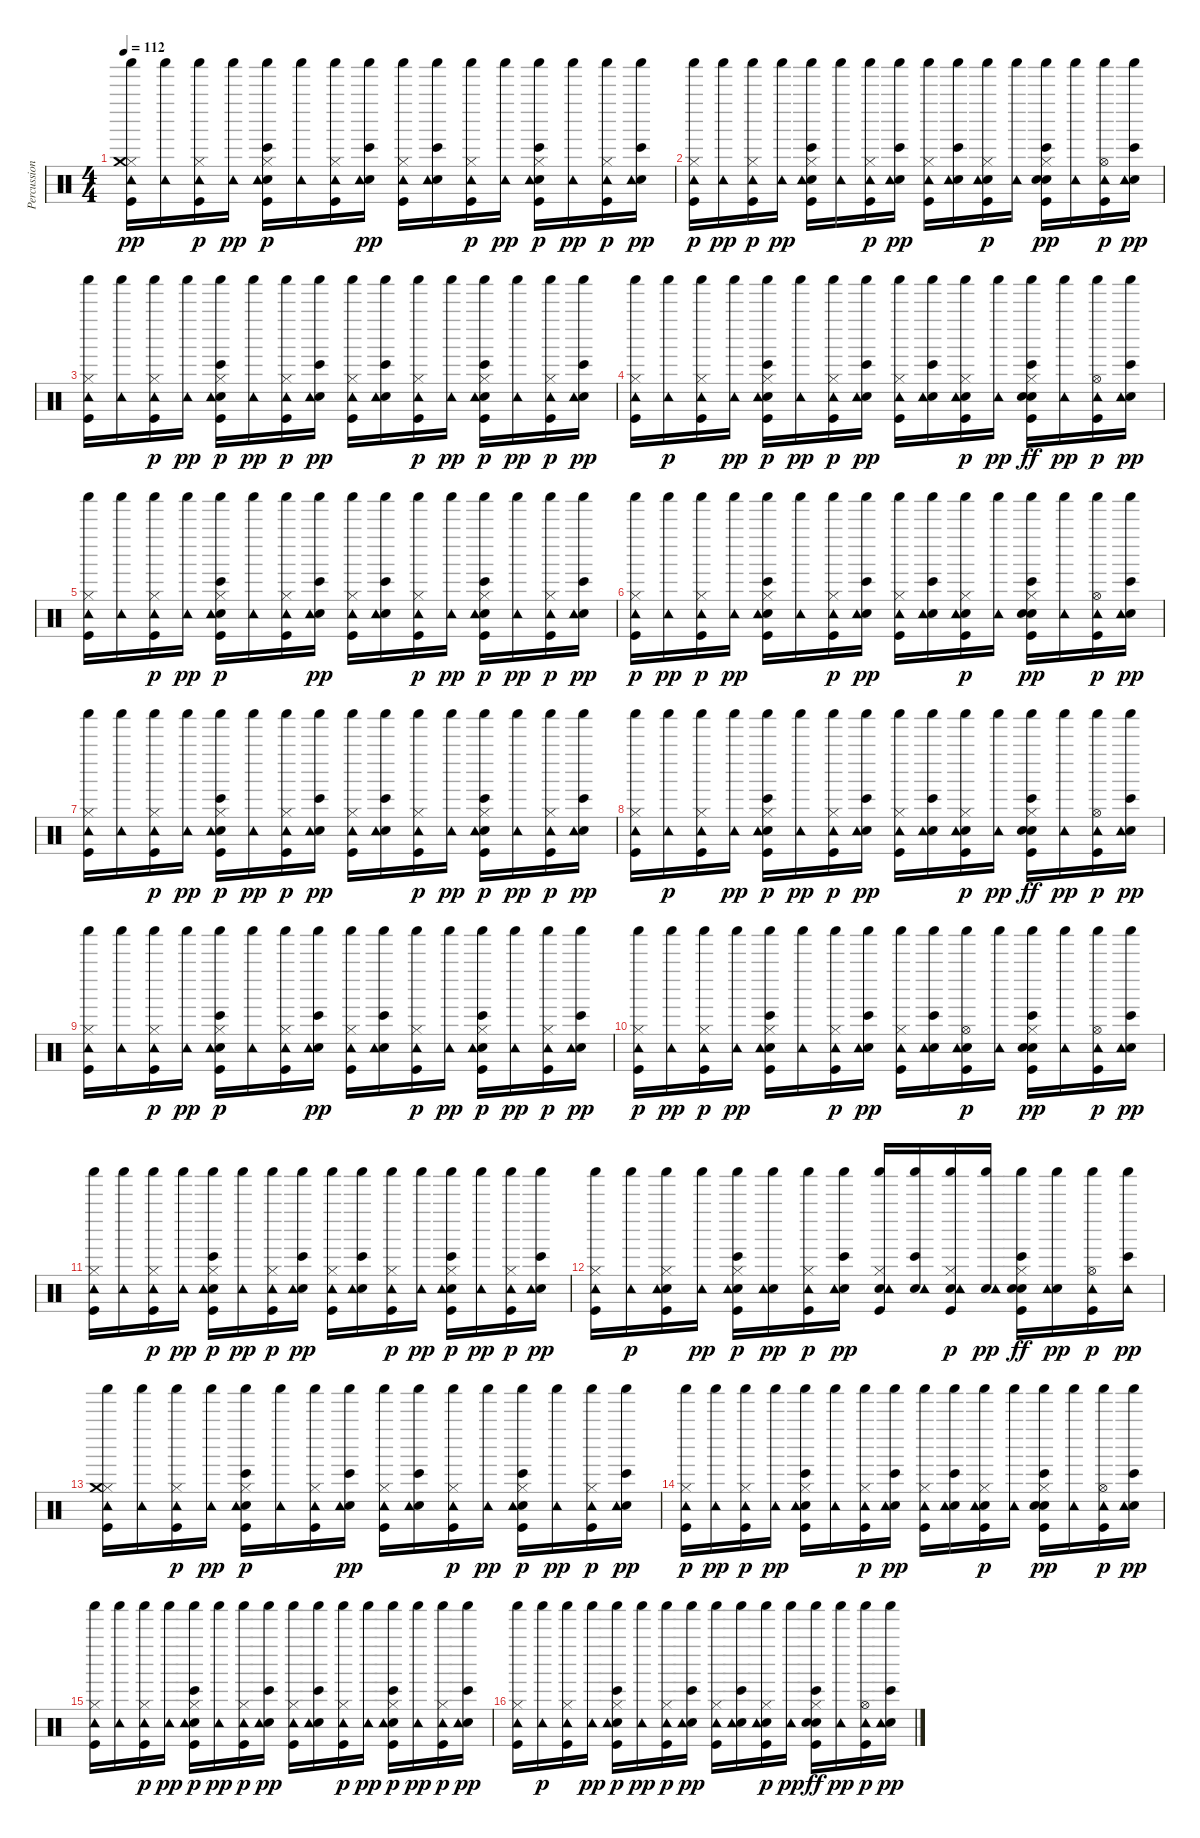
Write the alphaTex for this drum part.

\track ("Percussioni" "Percussion") {instrument percussion}
\staff {score}
\articulation defaults
\ts (4 4)
\tempo 112
\clef neutral
\ks c
("Kick (hit)" "Hi-Hat (closed)" "Tambourine (hit)" "Crash medium (hit)" "Shaker (hit)").16{dy pp} ("Tambourine (hit)" "Shaker (hit)").16 ("Kick (hit)" "Hi-Hat (closed)" "Shaker (hit)" "Tambourine (hit)").16{dy p} ("Tambourine (hit)" "Shaker (hit)").16{dy pp} ("Bongo High (hit)" "Kick (hit)" "Electric Snare (hit)" "Hi-Hat (closed)" "Shaker (hit)" "Tambourine (hit)").16{dy p} ("Shaker (hit)" "Tambourine (hit)").16 ("Kick (hit)" "Hi-Hat (closed)" "Shaker (hit)" "Tambourine (hit)").16 ("Bongo High (hit)" "Electric Snare (hit)" "Tambourine (hit)" "Shaker (hit)").16{dy pp} ("Kick (hit)" "Hi-Hat (closed)" "Tambourine (hit)" "Shaker (hit)").16 ("Bongo High (hit)" "Electric Snare (hit)" "Tambourine (hit)" "Shaker (hit)").16 ("Kick (hit)" "Hi-Hat (closed)" "Shaker (hit)" "Tambourine (hit)").16{dy p} ("Tambourine (hit)" "Shaker (hit)").16{dy pp} ("Bongo High (hit)" "Kick (hit)" "Electric Snare (hit)" "Hi-Hat (closed)" "Shaker (hit)" "Tambourine (hit)").16{dy p} ("Tambourine (hit)" "Shaker (hit)").16{dy pp} ("Kick (hit)" "Hi-Hat (closed)" "Shaker (hit)" "Tambourine (hit)").16{dy p} ("Bongo High (hit)" "Electric Snare (hit)" "Tambourine (hit)" "Shaker (hit)").16{dy pp} |
("Shaker (hit)" "Kick (hit)" "Hi-Hat (closed)" "Tambourine (hit)").16{dy p} ("Tambourine (hit)" "Shaker (hit)").16{dy pp} ("Kick (hit)" "Hi-Hat (closed)" "Shaker (hit)" "Tambourine (hit)").16{dy p} ("Tambourine (hit)" "Shaker (hit)").16{dy pp} ("Bongo High (hit)" "Kick (hit)" "Electric Snare (hit)" "Hi-Hat (closed)" "Tambourine (hit)" "Shaker (hit)").16 ("Tambourine (hit)" "Shaker (hit)").16 ("Kick (hit)" "Hi-Hat (closed)" "Shaker (hit)" "Tambourine (hit)").16{dy p} ("Bongo High (hit)" "Electric Snare (hit)" "Tambourine (hit)" "Shaker (hit)").16{dy pp} ("Kick (hit)" "Hi-Hat (closed)" "Tambourine (hit)" "Shaker (hit)").16 ("Bongo High (hit)" "Electric Snare (hit)" "Tambourine (hit)" "Shaker (hit)").16 ("Kick (hit)" "Hand Clap (hit)" "Hi-Hat (closed)" "Shaker (hit)" "Tambourine (hit)").16{dy p} ("Shaker (hit)" "Tambourine (hit)").16 ("Bongo High (hit)" "Kick (hit)" "Hand Clap (hit)" "Electric Snare (hit)" "Hi-Hat (closed)" "Shaker (hit)").16{dy pp} ("Tambourine (hit)" "Shaker (hit)").16 ("Kick (hit)" "Hi-Hat (open)" "Shaker (hit)" "Tambourine (hit)").16{dy p} ("Bongo High (hit)" "Electric Snare (hit)" "Tambourine (hit)" "Shaker (hit)").16{dy pp} |
("Kick (hit)" "Hi-Hat (closed)" "Tambourine (hit)" "Shaker (hit)").16 ("Tambourine (hit)" "Shaker (hit)").16 ("Kick (hit)" "Hi-Hat (closed)" "Shaker (hit)" "Tambourine (hit)").16{dy p} ("Tambourine (hit)" "Shaker (hit)").16{dy pp} ("Bongo High (hit)" "Kick (hit)" "Electric Snare (hit)" "Hi-Hat (closed)" "Shaker (hit)" "Tambourine (hit)").16{dy p} ("Tambourine (hit)" "Shaker (hit)").16{dy pp} ("Shaker (hit)" "Kick (hit)" "Hi-Hat (closed)" "Tambourine (hit)").16{dy p} ("Bongo High (hit)" "Electric Snare (hit)" "Tambourine (hit)" "Shaker (hit)").16{dy pp} ("Kick (hit)" "Hi-Hat (closed)" "Tambourine (hit)" "Shaker (hit)").16 ("Bongo High (hit)" "Electric Snare (hit)" "Tambourine (hit)" "Shaker (hit)").16 ("Kick (hit)" "Hi-Hat (closed)" "Shaker (hit)" "Tambourine (hit)").16{dy p} ("Tambourine (hit)" "Shaker (hit)").16{dy pp} ("Bongo High (hit)" "Kick (hit)" "Electric Snare (hit)" "Hi-Hat (closed)" "Shaker (hit)" "Tambourine (hit)").16{dy p} ("Tambourine (hit)" "Shaker (hit)").16{dy pp} ("Kick (hit)" "Hi-Hat (closed)" "Shaker (hit)" "Tambourine (hit)").16{dy p} ("Bongo High (hit)" "Electric Snare (hit)" "Tambourine (hit)" "Shaker (hit)").16{dy pp} |
("Kick (hit)" "Hi-Hat (closed)" "Tambourine (hit)" "Shaker (hit)").16 ("Shaker (hit)" "Tambourine (hit)").16{dy p} ("Kick (hit)" "Hi-Hat (closed)" "Shaker (hit)" "Tambourine (hit)").16 ("Tambourine (hit)" "Shaker (hit)").16{dy pp} ("Bongo High (hit)" "Kick (hit)" "Electric Snare (hit)" "Hi-Hat (closed)" "Shaker (hit)" "Tambourine (hit)").16{dy p} ("Tambourine (hit)" "Shaker (hit)").16{dy pp} ("Kick (hit)" "Hi-Hat (closed)" "Shaker (hit)" "Tambourine (hit)").16{dy p} ("Bongo High (hit)" "Electric Snare (hit)" "Tambourine (hit)" "Shaker (hit)").16{dy pp} ("Kick (hit)" "Hi-Hat (closed)" "Tambourine (hit)" "Shaker (hit)").16 ("Bongo High (hit)" "Electric Snare (hit)" "Tambourine (hit)" "Shaker (hit)").16 ("Kick (hit)" "Hand Clap (hit)" "Hi-Hat (closed)" "Shaker (hit)" "Tambourine (hit)").16{dy p} ("Tambourine (hit)" "Shaker (hit)").16{dy pp} ("Shaker (hit)" "Bongo High (hit)" "Kick (hit)" "Hand Clap (hit)" "Electric Snare (hit)" "Hi-Hat (closed)").16{dy ff} ("Tambourine (hit)" "Shaker (hit)").16{dy pp} ("Kick (hit)" "Hi-Hat (open)" "Shaker (hit)" "Tambourine (hit)").16{dy p} ("Bongo High (hit)" "Electric Snare (hit)" "Tambourine (hit)" "Shaker (hit)").16{dy pp} |
("Kick (hit)" "Hi-Hat (closed)" "Tambourine (hit)" "Shaker (hit)").16 ("Tambourine (hit)" "Shaker (hit)").16 ("Kick (hit)" "Hi-Hat (closed)" "Shaker (hit)" "Tambourine (hit)").16{dy p} ("Tambourine (hit)" "Shaker (hit)").16{dy pp} ("Bongo High (hit)" "Kick (hit)" "Electric Snare (hit)" "Hi-Hat (closed)" "Shaker (hit)" "Tambourine (hit)").16{dy p} ("Shaker (hit)" "Tambourine (hit)").16 ("Kick (hit)" "Hi-Hat (closed)" "Shaker (hit)" "Tambourine (hit)").16 ("Bongo High (hit)" "Electric Snare (hit)" "Tambourine (hit)" "Shaker (hit)").16{dy pp} ("Kick (hit)" "Hi-Hat (closed)" "Tambourine (hit)" "Shaker (hit)").16 ("Bongo High (hit)" "Electric Snare (hit)" "Tambourine (hit)" "Shaker (hit)").16 ("Kick (hit)" "Hi-Hat (closed)" "Shaker (hit)" "Tambourine (hit)").16{dy p} ("Tambourine (hit)" "Shaker (hit)").16{dy pp} ("Bongo High (hit)" "Kick (hit)" "Electric Snare (hit)" "Hi-Hat (closed)" "Shaker (hit)" "Tambourine (hit)").16{dy p} ("Tambourine (hit)" "Shaker (hit)").16{dy pp} ("Kick (hit)" "Hi-Hat (closed)" "Shaker (hit)" "Tambourine (hit)").16{dy p} ("Bongo High (hit)" "Electric Snare (hit)" "Tambourine (hit)" "Shaker (hit)").16{dy pp} |
("Shaker (hit)" "Kick (hit)" "Hi-Hat (closed)" "Tambourine (hit)").16{dy p} ("Tambourine (hit)" "Shaker (hit)").16{dy pp} ("Kick (hit)" "Hi-Hat (closed)" "Shaker (hit)" "Tambourine (hit)").16{dy p} ("Tambourine (hit)" "Shaker (hit)").16{dy pp} ("Bongo High (hit)" "Kick (hit)" "Electric Snare (hit)" "Hi-Hat (closed)" "Tambourine (hit)" "Shaker (hit)").16 ("Tambourine (hit)" "Shaker (hit)").16 ("Kick (hit)" "Hi-Hat (closed)" "Shaker (hit)" "Tambourine (hit)").16{dy p} ("Bongo High (hit)" "Electric Snare (hit)" "Tambourine (hit)" "Shaker (hit)").16{dy pp} ("Kick (hit)" "Hi-Hat (closed)" "Tambourine (hit)" "Shaker (hit)").16 ("Bongo High (hit)" "Electric Snare (hit)" "Tambourine (hit)" "Shaker (hit)").16 ("Kick (hit)" "Hand Clap (hit)" "Hi-Hat (closed)" "Shaker (hit)" "Tambourine (hit)").16{dy p} ("Shaker (hit)" "Tambourine (hit)").16 ("Bongo High (hit)" "Kick (hit)" "Hand Clap (hit)" "Electric Snare (hit)" "Hi-Hat (closed)" "Shaker (hit)").16{dy pp} ("Tambourine (hit)" "Shaker (hit)").16 ("Kick (hit)" "Hi-Hat (open)" "Shaker (hit)" "Tambourine (hit)").16{dy p} ("Bongo High (hit)" "Electric Snare (hit)" "Tambourine (hit)" "Shaker (hit)").16{dy pp} |
("Kick (hit)" "Hi-Hat (closed)" "Tambourine (hit)" "Shaker (hit)").16 ("Tambourine (hit)" "Shaker (hit)").16 ("Kick (hit)" "Hi-Hat (closed)" "Shaker (hit)" "Tambourine (hit)").16{dy p} ("Tambourine (hit)" "Shaker (hit)").16{dy pp} ("Bongo High (hit)" "Kick (hit)" "Electric Snare (hit)" "Hi-Hat (closed)" "Shaker (hit)" "Tambourine (hit)").16{dy p} ("Tambourine (hit)" "Shaker (hit)").16{dy pp} ("Shaker (hit)" "Kick (hit)" "Hi-Hat (closed)" "Tambourine (hit)").16{dy p} ("Bongo High (hit)" "Electric Snare (hit)" "Tambourine (hit)" "Shaker (hit)").16{dy pp} ("Kick (hit)" "Hi-Hat (closed)" "Tambourine (hit)" "Shaker (hit)").16 ("Bongo High (hit)" "Electric Snare (hit)" "Tambourine (hit)" "Shaker (hit)").16 ("Kick (hit)" "Hi-Hat (closed)" "Shaker (hit)" "Tambourine (hit)").16{dy p} ("Tambourine (hit)" "Shaker (hit)").16{dy pp} ("Bongo High (hit)" "Kick (hit)" "Electric Snare (hit)" "Hi-Hat (closed)" "Shaker (hit)" "Tambourine (hit)").16{dy p} ("Tambourine (hit)" "Shaker (hit)").16{dy pp} ("Kick (hit)" "Hi-Hat (closed)" "Shaker (hit)" "Tambourine (hit)").16{dy p} ("Bongo High (hit)" "Electric Snare (hit)" "Tambourine (hit)" "Shaker (hit)").16{dy pp} |
("Kick (hit)" "Hi-Hat (closed)" "Tambourine (hit)" "Shaker (hit)").16 ("Shaker (hit)" "Tambourine (hit)").16{dy p} ("Kick (hit)" "Hi-Hat (closed)" "Shaker (hit)" "Tambourine (hit)").16 ("Tambourine (hit)" "Shaker (hit)").16{dy pp} ("Bongo High (hit)" "Kick (hit)" "Electric Snare (hit)" "Hi-Hat (closed)" "Shaker (hit)" "Tambourine (hit)").16{dy p} ("Tambourine (hit)" "Shaker (hit)").16{dy pp} ("Kick (hit)" "Hi-Hat (closed)" "Shaker (hit)" "Tambourine (hit)").16{dy p} ("Bongo High (hit)" "Electric Snare (hit)" "Tambourine (hit)" "Shaker (hit)").16{dy pp} ("Kick (hit)" "Hi-Hat (closed)" "Tambourine (hit)" "Shaker (hit)").16 ("Bongo High (hit)" "Electric Snare (hit)" "Tambourine (hit)" "Shaker (hit)").16 ("Kick (hit)" "Hand Clap (hit)" "Hi-Hat (closed)" "Shaker (hit)" "Tambourine (hit)").16{dy p} ("Tambourine (hit)" "Shaker (hit)").16{dy pp} ("Shaker (hit)" "Bongo High (hit)" "Kick (hit)" "Hand Clap (hit)" "Electric Snare (hit)" "Hi-Hat (closed)").16{dy ff} ("Tambourine (hit)" "Shaker (hit)").16{dy pp} ("Kick (hit)" "Hi-Hat (open)" "Shaker (hit)" "Tambourine (hit)").16{dy p} ("Bongo High (hit)" "Electric Snare (hit)" "Tambourine (hit)" "Shaker (hit)").16{dy pp} |
("Kick (hit)" "Hi-Hat (closed)" "Tambourine (hit)" "Shaker (hit)").16 ("Tambourine (hit)" "Shaker (hit)").16 ("Kick (hit)" "Hi-Hat (closed)" "Shaker (hit)" "Tambourine (hit)").16{dy p} ("Tambourine (hit)" "Shaker (hit)").16{dy pp} ("Bongo High (hit)" "Kick (hit)" "Electric Snare (hit)" "Hi-Hat (closed)" "Shaker (hit)" "Tambourine (hit)").16{dy p} ("Shaker (hit)" "Tambourine (hit)").16 ("Kick (hit)" "Hi-Hat (closed)" "Shaker (hit)" "Tambourine (hit)").16 ("Bongo High (hit)" "Electric Snare (hit)" "Tambourine (hit)" "Shaker (hit)").16{dy pp} ("Kick (hit)" "Hi-Hat (closed)" "Tambourine (hit)" "Shaker (hit)").16 ("Bongo High (hit)" "Electric Snare (hit)" "Tambourine (hit)" "Shaker (hit)").16 ("Kick (hit)" "Hi-Hat (closed)" "Shaker (hit)" "Tambourine (hit)").16{dy p} ("Tambourine (hit)" "Shaker (hit)").16{dy pp} ("Bongo High (hit)" "Kick (hit)" "Electric Snare (hit)" "Hi-Hat (closed)" "Shaker (hit)" "Tambourine (hit)").16{dy p} ("Tambourine (hit)" "Shaker (hit)").16{dy pp} ("Kick (hit)" "Hi-Hat (closed)" "Shaker (hit)" "Tambourine (hit)").16{dy p} ("Bongo High (hit)" "Electric Snare (hit)" "Tambourine (hit)" "Shaker (hit)").16{dy pp} |
("Shaker (hit)" "Kick (hit)" "Hi-Hat (closed)" "Tambourine (hit)").16{dy p} ("Tambourine (hit)" "Shaker (hit)").16{dy pp} ("Kick (hit)" "Hi-Hat (closed)" "Shaker (hit)" "Tambourine (hit)").16{dy p} ("Tambourine (hit)" "Shaker (hit)").16{dy pp} ("Bongo High (hit)" "Kick (hit)" "Electric Snare (hit)" "Hi-Hat (closed)" "Tambourine (hit)" "Shaker (hit)").16 ("Tambourine (hit)" "Shaker (hit)").16 ("Kick (hit)" "Hi-Hat (closed)" "Shaker (hit)" "Tambourine (hit)").16{dy p} ("Bongo High (hit)" "Electric Snare (hit)" "Tambourine (hit)" "Shaker (hit)").16{dy pp} ("Kick (hit)" "Hi-Hat (closed)" "Tambourine (hit)" "Shaker (hit)").16 ("Bongo High (hit)" "Electric Snare (hit)" "Tambourine (hit)" "Shaker (hit)").16 ("Kick (hit)" "Hand Clap (hit)" "Hi-Hat (open)" "Shaker (hit)" "Tambourine (hit)").16{dy p} ("Shaker (hit)" "Tambourine (hit)").16 ("Bongo High (hit)" "Kick (hit)" "Hand Clap (hit)" "Electric Snare (hit)" "Hi-Hat (closed)" "Shaker (hit)").16{dy pp} ("Tambourine (hit)" "Shaker (hit)").16 ("Kick (hit)" "Hi-Hat (open)" "Shaker (hit)" "Tambourine (hit)").16{dy p} ("Bongo High (hit)" "Electric Snare (hit)" "Tambourine (hit)" "Shaker (hit)").16{dy pp} |
("Kick (hit)" "Hi-Hat (closed)" "Tambourine (hit)" "Shaker (hit)").16 ("Tambourine (hit)" "Shaker (hit)").16 ("Kick (hit)" "Hi-Hat (closed)" "Shaker (hit)" "Tambourine (hit)").16{dy p} ("Tambourine (hit)" "Shaker (hit)").16{dy pp} ("Bongo High (hit)" "Kick (hit)" "Electric Snare (hit)" "Hi-Hat (closed)" "Shaker (hit)" "Tambourine (hit)").16{dy p} ("Tambourine (hit)" "Shaker (hit)").16{dy pp} ("Shaker (hit)" "Kick (hit)" "Hi-Hat (closed)" "Tambourine (hit)").16{dy p} ("Bongo High (hit)" "Electric Snare (hit)" "Tambourine (hit)" "Shaker (hit)").16{dy pp} ("Kick (hit)" "Hi-Hat (closed)" "Tambourine (hit)" "Shaker (hit)").16 ("Bongo High (hit)" "Electric Snare (hit)" "Tambourine (hit)" "Shaker (hit)").16 ("Kick (hit)" "Hi-Hat (closed)" "Shaker (hit)" "Tambourine (hit)").16{dy p} ("Tambourine (hit)" "Shaker (hit)").16{dy pp} ("Bongo High (hit)" "Kick (hit)" "Electric Snare (hit)" "Hi-Hat (closed)" "Shaker (hit)" "Tambourine (hit)").16{dy p} ("Tambourine (hit)" "Shaker (hit)").16{dy pp} ("Kick (hit)" "Hi-Hat (closed)" "Shaker (hit)" "Tambourine (hit)").16{dy p} ("Bongo High (hit)" "Electric Snare (hit)" "Tambourine (hit)" "Shaker (hit)").16{dy pp} |
("Kick (hit)" "Hi-Hat (closed)" "Tambourine (hit)" "Shaker (hit)").16 ("Shaker (hit)" "Tambourine (hit)").16{dy p} ("Kick (hit)" "Electric Snare (hit)" "Hi-Hat (closed)" "Shaker (hit)" "Tambourine (hit)").16 ("Tambourine (hit)" "Shaker (hit)").16{dy pp} ("Bongo High (hit)" "Kick (hit)" "Electric Snare (hit)" "Hi-Hat (closed)" "Shaker (hit)" "Tambourine (hit)").16{dy p} ("Electric Snare (hit)" "Tambourine (hit)" "Shaker (hit)").16{dy pp} ("Kick (hit)" "Hi-Hat (closed)" "Shaker (hit)" "Tambourine (hit)").16{dy p} ("Bongo High (hit)" "Electric Snare (hit)" "Tambourine (hit)" "Shaker (hit)").16{dy pp} ("Kick (hit)" "Electric Snare (hit)" "Hi-Hat (closed)" "Tambourine (hit)" "Shaker (hit)").16 ("Bongo High (hit)" "Electric Snare (hit)" "Tambourine (hit)" "Shaker (hit)").16 ("Kick (hit)" "Hand Clap (hit)" "Hi-Hat (closed)" "Shaker (hit)" "Tambourine (hit)").16{dy p} ("Electric Snare (hit)" "Tambourine (hit)" "Shaker (hit)").16{dy pp} ("Shaker (hit)" "Bongo High (hit)" "Kick (hit)" "Hand Clap (hit)" "Electric Snare (hit)" "Hi-Hat (closed)").16{dy ff} ("Electric Snare (hit)" "Tambourine (hit)" "Shaker (hit)").16{dy pp} ("Kick (hit)" "Hi-Hat (open)" "Shaker (hit)" "Tambourine (hit)").16{dy p} ("Bongo High (hit)" "Tambourine (hit)" "Shaker (hit)").16{dy pp} |
("Kick (hit)" "Hi-Hat (closed)" "Tambourine (hit)" "Crash medium (hit)" "Shaker (hit)").16 ("Tambourine (hit)" "Shaker (hit)").16 ("Kick (hit)" "Hi-Hat (closed)" "Shaker (hit)" "Tambourine (hit)").16{dy p} ("Tambourine (hit)" "Shaker (hit)").16{dy pp} ("Bongo High (hit)" "Kick (hit)" "Electric Snare (hit)" "Hi-Hat (closed)" "Shaker (hit)" "Tambourine (hit)").16{dy p} ("Shaker (hit)" "Tambourine (hit)").16 ("Kick (hit)" "Hi-Hat (closed)" "Shaker (hit)" "Tambourine (hit)").16 ("Bongo High (hit)" "Electric Snare (hit)" "Tambourine (hit)" "Shaker (hit)").16{dy pp} ("Kick (hit)" "Hi-Hat (closed)" "Tambourine (hit)" "Shaker (hit)").16 ("Bongo High (hit)" "Electric Snare (hit)" "Tambourine (hit)" "Shaker (hit)").16 ("Kick (hit)" "Hi-Hat (closed)" "Shaker (hit)" "Tambourine (hit)").16{dy p} ("Tambourine (hit)" "Shaker (hit)").16{dy pp} ("Bongo High (hit)" "Kick (hit)" "Electric Snare (hit)" "Hi-Hat (closed)" "Shaker (hit)" "Tambourine (hit)").16{dy p} ("Tambourine (hit)" "Shaker (hit)").16{dy pp} ("Kick (hit)" "Hi-Hat (closed)" "Shaker (hit)" "Tambourine (hit)").16{dy p} ("Bongo High (hit)" "Electric Snare (hit)" "Tambourine (hit)" "Shaker (hit)").16{dy pp} |
("Shaker (hit)" "Kick (hit)" "Hi-Hat (closed)" "Tambourine (hit)").16{dy p} ("Tambourine (hit)" "Shaker (hit)").16{dy pp} ("Kick (hit)" "Hi-Hat (closed)" "Shaker (hit)" "Tambourine (hit)").16{dy p} ("Tambourine (hit)" "Shaker (hit)").16{dy pp} ("Bongo High (hit)" "Kick (hit)" "Electric Snare (hit)" "Hi-Hat (closed)" "Tambourine (hit)" "Shaker (hit)").16 ("Tambourine (hit)" "Shaker (hit)").16 ("Kick (hit)" "Hi-Hat (closed)" "Shaker (hit)" "Tambourine (hit)").16{dy p} ("Bongo High (hit)" "Electric Snare (hit)" "Tambourine (hit)" "Shaker (hit)").16{dy pp} ("Kick (hit)" "Hi-Hat (closed)" "Tambourine (hit)" "Shaker (hit)").16 ("Bongo High (hit)" "Electric Snare (hit)" "Tambourine (hit)" "Shaker (hit)").16 ("Kick (hit)" "Hand Clap (hit)" "Hi-Hat (closed)" "Shaker (hit)" "Tambourine (hit)").16{dy p} ("Shaker (hit)" "Tambourine (hit)").16 ("Bongo High (hit)" "Kick (hit)" "Hand Clap (hit)" "Electric Snare (hit)" "Hi-Hat (closed)" "Shaker (hit)").16{dy pp} ("Tambourine (hit)" "Shaker (hit)").16 ("Kick (hit)" "Hi-Hat (open)" "Shaker (hit)" "Tambourine (hit)").16{dy p} ("Bongo High (hit)" "Electric Snare (hit)" "Tambourine (hit)" "Shaker (hit)").16{dy pp} |
("Kick (hit)" "Hi-Hat (closed)" "Tambourine (hit)" "Shaker (hit)").16 ("Tambourine (hit)" "Shaker (hit)").16 ("Kick (hit)" "Hi-Hat (closed)" "Shaker (hit)" "Tambourine (hit)").16{dy p} ("Tambourine (hit)" "Shaker (hit)").16{dy pp} ("Bongo High (hit)" "Kick (hit)" "Electric Snare (hit)" "Hi-Hat (closed)" "Shaker (hit)" "Tambourine (hit)").16{dy p} ("Tambourine (hit)" "Shaker (hit)").16{dy pp} ("Shaker (hit)" "Kick (hit)" "Hi-Hat (closed)" "Tambourine (hit)").16{dy p} ("Bongo High (hit)" "Electric Snare (hit)" "Tambourine (hit)" "Shaker (hit)").16{dy pp} ("Kick (hit)" "Hi-Hat (closed)" "Tambourine (hit)" "Shaker (hit)").16 ("Bongo High (hit)" "Electric Snare (hit)" "Tambourine (hit)" "Shaker (hit)").16 ("Kick (hit)" "Hi-Hat (closed)" "Shaker (hit)" "Tambourine (hit)").16{dy p} ("Tambourine (hit)" "Shaker (hit)").16{dy pp} ("Bongo High (hit)" "Kick (hit)" "Electric Snare (hit)" "Hi-Hat (closed)" "Shaker (hit)" "Tambourine (hit)").16{dy p} ("Tambourine (hit)" "Shaker (hit)").16{dy pp} ("Kick (hit)" "Hi-Hat (closed)" "Shaker (hit)" "Tambourine (hit)").16{dy p} ("Bongo High (hit)" "Electric Snare (hit)" "Tambourine (hit)" "Shaker (hit)").16{dy pp} |
("Kick (hit)" "Hi-Hat (closed)" "Tambourine (hit)" "Shaker (hit)").16 ("Shaker (hit)" "Tambourine (hit)").16{dy p} ("Kick (hit)" "Hi-Hat (closed)" "Shaker (hit)" "Tambourine (hit)").16 ("Tambourine (hit)" "Shaker (hit)").16{dy pp} ("Bongo High (hit)" "Kick (hit)" "Electric Snare (hit)" "Hi-Hat (closed)" "Shaker (hit)" "Tambourine (hit)").16{dy p} ("Tambourine (hit)" "Shaker (hit)").16{dy pp} ("Kick (hit)" "Hi-Hat (closed)" "Shaker (hit)" "Tambourine (hit)").16{dy p} ("Bongo High (hit)" "Electric Snare (hit)" "Tambourine (hit)" "Shaker (hit)").16{dy pp} ("Kick (hit)" "Hi-Hat (closed)" "Tambourine (hit)" "Shaker (hit)").16 ("Bongo High (hit)" "Electric Snare (hit)" "Tambourine (hit)" "Shaker (hit)").16 ("Kick (hit)" "Hand Clap (hit)" "Hi-Hat (closed)" "Shaker (hit)" "Tambourine (hit)").16{dy p} ("Tambourine (hit)" "Shaker (hit)").16{dy pp} ("Shaker (hit)" "Bongo High (hit)" "Kick (hit)" "Hand Clap (hit)" "Electric Snare (hit)" "Hi-Hat (closed)").16{dy ff} ("Tambourine (hit)" "Shaker (hit)").16{dy pp} ("Kick (hit)" "Hi-Hat (open)" "Shaker (hit)" "Tambourine (hit)").16{dy p} ("Bongo High (hit)" "Electric Snare (hit)" "Tambourine (hit)" "Shaker (hit)").16{dy pp}
